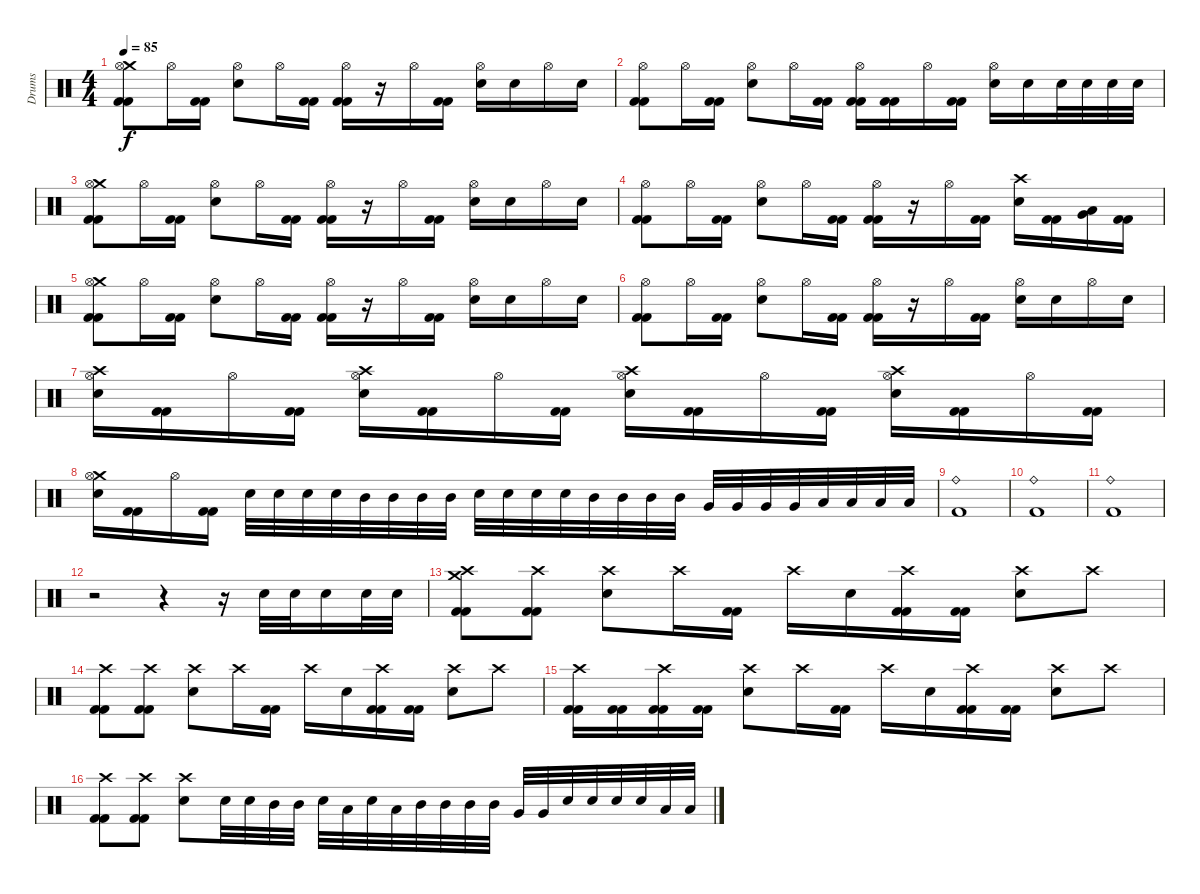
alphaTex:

\track ("Drums" "Drums") {instrument percussion}
\staff {score}
\articulation defaults
\ts (4 4)
\tempo 85
\clef neutral
\ks c
("Crash medium (hit)" "Hi-Hat (open)" "Kick (hit) 2" "Kick (hit) 2").8{dy f} "Hi-Hat (open)".16 ("Kick (hit) 2" "Kick (hit) 2").16 ("Hi-Hat (open)" "Electric Snare (hit)").8 "Hi-Hat (open)".16 ("Kick (hit) 2" "Kick (hit) 2").16 ("Hi-Hat (open)" "Kick (hit) 2" "Kick (hit) 2").16 r.16 "Hi-Hat (open)".16 ("Kick (hit) 2" "Kick (hit) 2").16 ("Hi-Hat (open)" "Electric Snare (hit)").16 "Electric Snare (hit)".16 "Hi-Hat (open)".16 "Electric Snare (hit)".16 |
("Hi-Hat (open)" "Kick (hit) 2" "Kick (hit) 2").8 "Hi-Hat (open)".16 ("Kick (hit) 2" "Kick (hit) 2").16 ("Hi-Hat (open)" "Electric Snare (hit)").8 "Hi-Hat (open)".16 ("Kick (hit) 2" "Kick (hit) 2").16 ("Hi-Hat (open)" "Kick (hit) 2" "Kick (hit) 2").16 ("Kick (hit) 2" "Kick (hit) 2").16 "Hi-Hat (open)".16 ("Kick (hit) 2" "Kick (hit) 2").16 ("Hi-Hat (open)" "Electric Snare (hit)").16 "Electric Snare (hit)".16 "Electric Snare (hit)".32 "Electric Snare (hit)".32 "Electric Snare (hit)".32 "Electric Snare (hit)".32 |
("Crash medium (hit)" "Hi-Hat (open)" "Kick (hit) 2" "Kick (hit) 2").8 "Hi-Hat (open)".16 ("Kick (hit) 2" "Kick (hit) 2").16 ("Hi-Hat (open)" "Electric Snare (hit)").8 "Hi-Hat (open)".16 ("Kick (hit) 2" "Kick (hit) 2").16 ("Hi-Hat (open)" "Kick (hit) 2" "Kick (hit) 2").16 r.16 "Hi-Hat (open)".16 ("Kick (hit) 2" "Kick (hit) 2").16 ("Hi-Hat (open)" "Electric Snare (hit)").16 "Electric Snare (hit)".16 "Hi-Hat (open)".16 "Electric Snare (hit)".16 |
("Hi-Hat (open)" "Kick (hit) 2" "Kick (hit) 2").8 "Hi-Hat (open)".16 ("Kick (hit) 2" "Kick (hit) 2").16 ("Hi-Hat (open)" "Electric Snare (hit)").8 "Hi-Hat (open)".16 ("Kick (hit) 2" "Kick (hit) 2").16 ("Hi-Hat (open)" "Kick (hit) 2" "Kick (hit) 2").16 r.16 "Hi-Hat (open)".16 ("Kick (hit) 2" "Kick (hit) 2").16 ("Crash high (hit)" "Electric Snare (hit)").16 ("Kick (hit) 2" "Kick (hit) 2").16 ("Very Low Tom (hit)" "Low Floor Tom (hit)").16 ("Kick (hit) 2" "Kick (hit) 2").16 |
("Crash medium (hit)" "Hi-Hat (open)" "Kick (hit) 2" "Kick (hit) 2").8 "Hi-Hat (open)".16 ("Kick (hit) 2" "Kick (hit) 2").16 ("Hi-Hat (open)" "Electric Snare (hit)").8 "Hi-Hat (open)".16 ("Kick (hit) 2" "Kick (hit) 2").16 ("Hi-Hat (open)" "Kick (hit) 2" "Kick (hit) 2").16 r.16 "Hi-Hat (open)".16 ("Kick (hit) 2" "Kick (hit) 2").16 ("Hi-Hat (open)" "Electric Snare (hit)").16 "Electric Snare (hit)".16 "Hi-Hat (open)".16 "Electric Snare (hit)".16 |
("Hi-Hat (open)" "Kick (hit) 2" "Kick (hit) 2").8 "Hi-Hat (open)".16 ("Kick (hit) 2" "Kick (hit) 2").16 ("Hi-Hat (open)" "Electric Snare (hit)").8 "Hi-Hat (open)".16 ("Kick (hit) 2" "Kick (hit) 2").16 ("Hi-Hat (open)" "Kick (hit) 2" "Kick (hit) 2").16 r.16 "Hi-Hat (open)".16 ("Kick (hit) 2" "Kick (hit) 2").16 ("Hi-Hat (open)" "Electric Snare (hit)").16 "Electric Snare (hit)".16 "Hi-Hat (open)".16 "Electric Snare (hit)".16 |
("Crash high (hit)" "Hi-Hat (open)" "Electric Snare (hit)").16 ("Kick (hit) 2" "Kick (hit) 2").16 "Hi-Hat (open)".16 ("Kick (hit) 2" "Kick (hit) 2").16 ("Crash high (hit)" "Hi-Hat (open)" "Electric Snare (hit)").16 ("Kick (hit) 2" "Kick (hit) 2").16 "Hi-Hat (open)".16 ("Kick (hit) 2" "Kick (hit) 2").16 ("Crash high (hit)" "Hi-Hat (open)" "Electric Snare (hit)").16 ("Kick (hit) 2" "Kick (hit) 2").16 "Hi-Hat (open)".16 ("Kick (hit) 2" "Kick (hit) 2").16 ("Crash high (hit)" "Hi-Hat (open)" "Electric Snare (hit)").16 ("Kick (hit) 2" "Kick (hit) 2").16 "Hi-Hat (open)".16 ("Kick (hit) 2" "Kick (hit) 2").16 |
("Crash medium (hit)" "Hi-Hat (open)" "Electric Snare (hit)").16 ("Kick (hit) 2" "Kick (hit) 2").16 "Hi-Hat (open)".16 ("Kick (hit) 2" "Kick (hit) 2").16 "Electric Snare (hit)".32 "Electric Snare (hit)".32 "Electric Snare (hit)".32 "Electric Snare (hit)".32 "Mid Tom (hit)".32 "Mid Tom (hit)".32 "Mid Tom (hit)".32 "Mid Tom (hit)".32 "Electric Snare (hit)".32 "Electric Snare (hit)".32 "Electric Snare (hit)".32 "Electric Snare (hit)".32 "Mid Tom (hit)".32 "Mid Tom (hit)".32 "Mid Tom (hit)".32 "Mid Tom (hit)".32 "Very Low Tom (hit)".32 "Very Low Tom (hit)".32 "Very Low Tom (hit)".32 "Very Low Tom (hit)".32 "Low Floor Tom (hit)".32 "Low Floor Tom (hit)".32 "Low Floor Tom (hit)".32 "Low Floor Tom (hit)".32 |
("Ride (bell)" "Kick (hit) 2").1 |
("Ride (bell)" "Kick (hit) 2").1 |
("Ride (bell)" "Kick (hit) 2").1 |
r.2 r.4 r.16 "Electric Snare (hit)".32 "Electric Snare (hit)".32 "Electric Snare (hit)".16 "Electric Snare (hit)".32 "Electric Snare (hit)".32 |
("Crash medium (hit)" "Crash high (hit)" "Kick (hit) 2" "Kick (hit) 2").8 ("Crash high (hit)" "Kick (hit) 2" "Kick (hit) 2").8 ("Crash high (hit)" "Electric Snare (hit)").8 "Crash high (hit)".16 ("Kick (hit) 2" "Kick (hit) 2").16 "Crash high (hit)".16 "Electric Snare (hit)".16 ("Crash high (hit)" "Kick (hit) 2" "Kick (hit) 2").16 ("Kick (hit) 2" "Kick (hit) 2").16 ("Crash high (hit)" "Electric Snare (hit)").8 "Crash high (hit)".8 |
("Crash high (hit)" "Kick (hit) 2" "Kick (hit) 2").8 ("Crash high (hit)" "Kick (hit) 2" "Kick (hit) 2").8 ("Crash high (hit)" "Electric Snare (hit)").8 "Crash high (hit)".16 ("Kick (hit) 2" "Kick (hit) 2").16 "Crash high (hit)".16 "Electric Snare (hit)".16 ("Crash high (hit)" "Kick (hit) 2" "Kick (hit) 2").16 ("Kick (hit) 2" "Kick (hit) 2").16 ("Crash high (hit)" "Electric Snare (hit)").8 "Crash high (hit)".8 |
("Crash high (hit)" "Kick (hit) 2" "Kick (hit) 2").16 ("Kick (hit) 2" "Kick (hit) 2").16 ("Crash high (hit)" "Kick (hit) 2" "Kick (hit) 2").16 ("Kick (hit) 2" "Kick (hit) 2").16 ("Crash high (hit)" "Electric Snare (hit)").8 "Crash high (hit)".16 ("Kick (hit) 2" "Kick (hit) 2").16 "Crash high (hit)".16 "Electric Snare (hit)".16 ("Crash high (hit)" "Kick (hit) 2" "Kick (hit) 2").16 ("Kick (hit) 2" "Kick (hit) 2").16 ("Crash high (hit)" "Electric Snare (hit)").8 "Crash high (hit)".8 |
("Crash high (hit)" "Kick (hit) 2" "Kick (hit) 2").8 ("Crash high (hit)" "Kick (hit) 2" "Kick (hit) 2").8 ("Crash high (hit)" "Electric Snare (hit)").8 "Electric Snare (hit)".32 "Electric Snare (hit)".32 "Mid Tom (hit)".32 "Mid Tom (hit)".32 "Electric Snare (hit)".32 "Low Tom (hit)".32 "Electric Snare (hit)".32 "Low Tom (hit)".32 "Mid Tom (hit)".32 "Mid Tom (hit)".32 "Mid Tom (hit)".32 "Mid Tom (hit)".32 "Very Low Tom (hit)".32 "Very Low Tom (hit)".32 "Electric Snare (hit)".32 "Electric Snare (hit)".32 "Electric Snare (hit)".32 "Electric Snare (hit)".32 "Low Floor Tom (hit)".32 "Low Floor Tom (hit)".32
